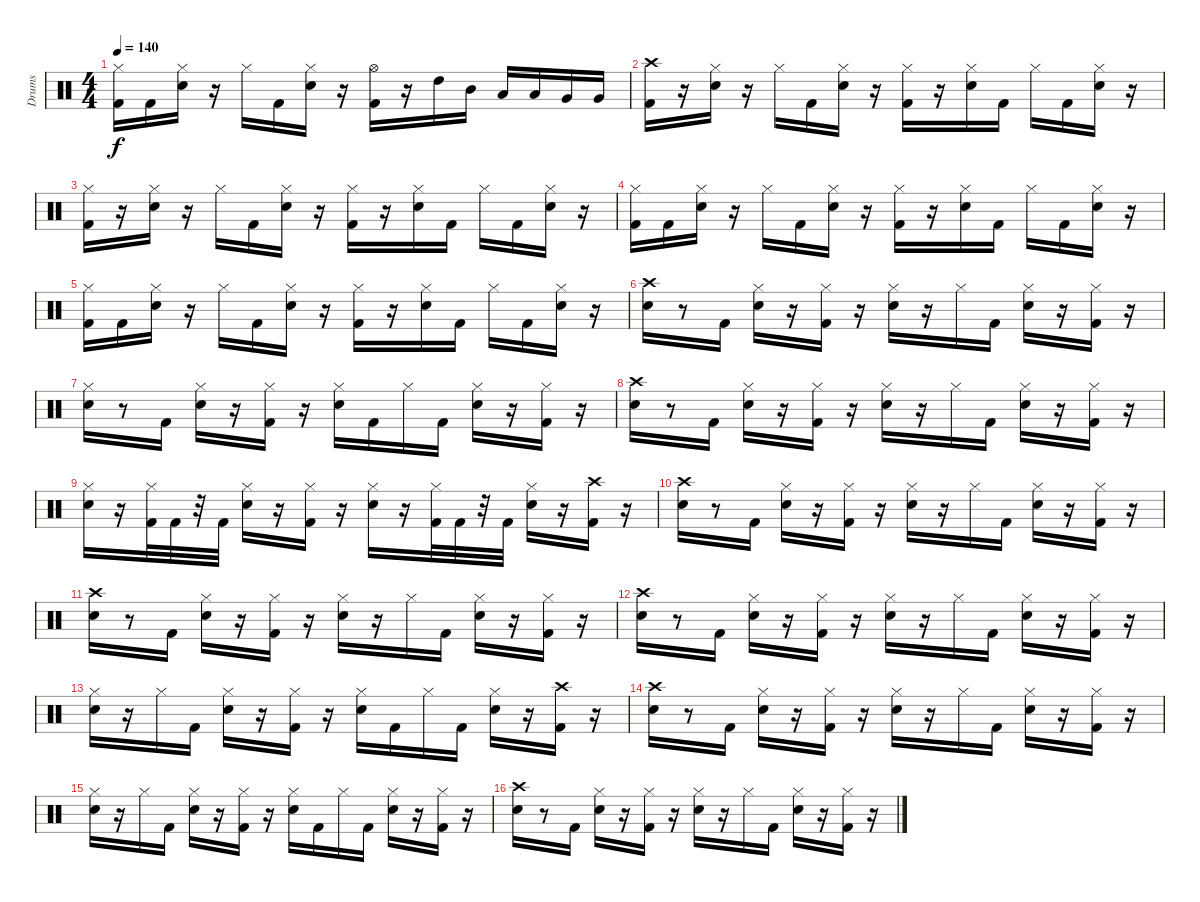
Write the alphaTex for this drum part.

\track ("Drums" "Drums") {instrument percussion}
\staff {score}
\articulation defaults
\ts (4 4)
\tempo 140
\clef neutral
\ks c
("Kick (hit) 2" "Hi-Hat (closed)").16{dy f} "Kick (hit) 2".16 ("Snare (hit) 2" "Hi-Hat (closed)").16 r.16 "Hi-Hat (closed)".16 "Kick (hit) 2".16 ("Snare (hit) 2" "Hi-Hat (closed)").16 r.16 ("Kick (hit) 2" "Hi-Hat (open)").16 r.16 "High Tom (hit)".16 "Mid Tom (hit)".16 "Low Tom (hit)".16 "Low Tom (hit)".16 "Very Low Tom (hit)".16 "Very Low Tom (hit)".16 |
("Kick (hit) 2" "Crash high (hit)").16 r.16 ("Snare (hit) 2" "Hi-Hat (closed)").16 r.16 "Hi-Hat (closed)".16 "Kick (hit) 2".16 ("Snare (hit) 2" "Hi-Hat (closed)").16 r.16 ("Kick (hit) 2" "Hi-Hat (closed)").16 r.16 ("Snare (hit) 2" "Hi-Hat (closed)").16 "Kick (hit) 2".16 "Hi-Hat (closed)".16 "Kick (hit) 2".16 ("Snare (hit) 2" "Hi-Hat (closed)").16 r.16 |
("Kick (hit) 2" "Hi-Hat (closed)").16 r.16 ("Snare (hit) 2" "Hi-Hat (closed)").16 r.16 "Hi-Hat (closed)".16 "Kick (hit) 2".16 ("Snare (hit) 2" "Hi-Hat (closed)").16 r.16 ("Kick (hit) 2" "Hi-Hat (closed)").16 r.16 ("Snare (hit) 2" "Hi-Hat (closed)").16 "Kick (hit) 2".16 "Hi-Hat (closed)".16 "Kick (hit) 2".16 ("Snare (hit) 2" "Hi-Hat (closed)").16 r.16 |
("Kick (hit) 2" "Hi-Hat (closed)").16 "Kick (hit) 2".16 ("Snare (hit) 2" "Hi-Hat (closed)").16 r.16 "Hi-Hat (closed)".16 "Kick (hit) 2".16 ("Snare (hit) 2" "Hi-Hat (closed)").16 r.16 ("Kick (hit) 2" "Hi-Hat (closed)").16 r.16 ("Snare (hit) 2" "Hi-Hat (closed)").16 "Kick (hit) 2".16 "Hi-Hat (closed)".16 "Kick (hit) 2".16 ("Snare (hit) 2" "Hi-Hat (closed)").16 r.16 |
("Kick (hit) 2" "Hi-Hat (closed)").16 "Kick (hit) 2".16 ("Snare (hit) 2" "Hi-Hat (closed)").16 r.16 "Hi-Hat (closed)".16 "Kick (hit) 2".16 ("Snare (hit) 2" "Hi-Hat (closed)").16 r.16 ("Kick (hit) 2" "Hi-Hat (closed)").16 r.16 ("Snare (hit) 2" "Hi-Hat (closed)").16 "Kick (hit) 2".16 "Hi-Hat (closed)".16 "Kick (hit) 2".16 ("Snare (hit) 2" "Hi-Hat (closed)").16 r.16 |
("Snare (hit) 2" "Crash high (hit)").16 r.8 "Kick (hit) 2".16 ("Snare (hit) 2" "Hi-Hat (closed)").16 r.16 ("Kick (hit) 2" "Hi-Hat (closed)").16 r.16 ("Snare (hit) 2" "Hi-Hat (closed)").16 r.16 "Hi-Hat (closed)".16 "Kick (hit) 2".16 ("Snare (hit) 2" "Hi-Hat (closed)").16 r.16 ("Kick (hit) 2" "Hi-Hat (closed)").16 r.16 |
("Snare (hit) 2" "Hi-Hat (closed)").16 r.8 "Kick (hit) 2".16 ("Snare (hit) 2" "Hi-Hat (closed)").16 r.16 ("Kick (hit) 2" "Hi-Hat (closed)").16 r.16 ("Snare (hit) 2" "Hi-Hat (closed)").16 "Kick (hit) 2".16 "Hi-Hat (closed)".16 "Kick (hit) 2".16 ("Snare (hit) 2" "Hi-Hat (closed)").16 r.16 ("Kick (hit) 2" "Hi-Hat (closed)").16 r.16 |
("Snare (hit) 2" "Crash high (hit)").16 r.8 "Kick (hit) 2".16 ("Snare (hit) 2" "Hi-Hat (closed)").16 r.16 ("Kick (hit) 2" "Hi-Hat (closed)").16 r.16 ("Snare (hit) 2" "Hi-Hat (closed)").16 r.16 "Hi-Hat (closed)".16 "Kick (hit) 2".16 ("Snare (hit) 2" "Hi-Hat (closed)").16 r.16 ("Kick (hit) 2" "Hi-Hat (closed)").16 r.16 |
("Snare (hit) 2" "Hi-Hat (closed)").16 r.16 ("Kick (hit) 2" "Hi-Hat (closed)").32 "Kick (hit) 2".32 r.32 "Kick (hit) 2".32 ("Snare (hit) 2" "Hi-Hat (closed)").16 r.16 ("Kick (hit) 2" "Hi-Hat (closed)").16 r.16 ("Snare (hit) 2" "Hi-Hat (closed)").16 r.16 ("Kick (hit) 2" "Hi-Hat (closed)").32 "Kick (hit) 2".32 r.32 "Kick (hit) 2".32 ("Snare (hit) 2" "Hi-Hat (closed)").16 r.16 ("Kick (hit) 2" "Crash high (hit)").16 r.16 |
("Snare (hit) 2" "Crash high (hit)").16 r.8 "Kick (hit) 2".16 ("Snare (hit) 2" "Hi-Hat (closed)").16 r.16 ("Kick (hit) 2" "Hi-Hat (closed)").16 r.16 ("Snare (hit) 2" "Hi-Hat (closed)").16 r.16 "Hi-Hat (closed)".16 "Kick (hit) 2".16 ("Snare (hit) 2" "Hi-Hat (closed)").16 r.16 ("Kick (hit) 2" "Hi-Hat (closed)").16 r.16 |
("Snare (hit) 2" "Crash high (hit)").16 r.8 "Kick (hit) 2".16 ("Snare (hit) 2" "Hi-Hat (closed)").16 r.16 ("Kick (hit) 2" "Hi-Hat (closed)").16 r.16 ("Snare (hit) 2" "Hi-Hat (closed)").16 r.16 "Hi-Hat (closed)".16 "Kick (hit) 2".16 ("Snare (hit) 2" "Hi-Hat (closed)").16 r.16 ("Kick (hit) 2" "Hi-Hat (closed)").16 r.16 |
("Snare (hit) 2" "Crash high (hit)").16 r.8 "Kick (hit) 2".16 ("Snare (hit) 2" "Hi-Hat (closed)").16 r.16 ("Kick (hit) 2" "Hi-Hat (closed)").16 r.16 ("Snare (hit) 2" "Hi-Hat (closed)").16 r.16 "Hi-Hat (closed)".16 "Kick (hit) 2".16 ("Snare (hit) 2" "Hi-Hat (closed)").16 r.16 ("Kick (hit) 2" "Hi-Hat (closed)").16 r.16 |
("Snare (hit) 2" "Hi-Hat (closed)").16 r.16 "Hi-Hat (closed)".16 "Kick (hit) 2".16 ("Snare (hit) 2" "Hi-Hat (closed)").16 r.16 ("Kick (hit) 2" "Hi-Hat (closed)").16 r.16 ("Snare (hit) 2" "Hi-Hat (closed)").16 "Kick (hit) 2".16 "Hi-Hat (closed)".16 "Kick (hit) 2".16 ("Snare (hit) 2" "Hi-Hat (closed)").16 r.16 ("Kick (hit) 2" "Crash high (hit)").16 r.16 |
("Snare (hit) 2" "Crash high (hit)").16 r.8 "Kick (hit) 2".16 ("Snare (hit) 2" "Hi-Hat (closed)").16 r.16 ("Kick (hit) 2" "Hi-Hat (closed)").16 r.16 ("Snare (hit) 2" "Hi-Hat (closed)").16 r.16 "Hi-Hat (closed)".16 "Kick (hit) 2".16 ("Snare (hit) 2" "Hi-Hat (closed)").16 r.16 ("Kick (hit) 2" "Hi-Hat (closed)").16 r.16 |
("Snare (hit) 2" "Hi-Hat (closed)").16 r.16 "Hi-Hat (closed)".16 "Kick (hit) 2".16 ("Snare (hit) 2" "Hi-Hat (closed)").16 r.16 ("Kick (hit) 2" "Hi-Hat (closed)").16 r.16 ("Snare (hit) 2" "Hi-Hat (closed)").16 "Kick (hit) 2".16 "Hi-Hat (closed)".16 "Kick (hit) 2".16 ("Snare (hit) 2" "Hi-Hat (closed)").16 r.16 ("Kick (hit) 2" "Hi-Hat (closed)").16 r.16 |
("Snare (hit) 2" "Crash high (hit)").16 r.8 "Kick (hit) 2".16 ("Snare (hit) 2" "Hi-Hat (closed)").16 r.16 ("Kick (hit) 2" "Hi-Hat (closed)").16 r.16 ("Snare (hit) 2" "Hi-Hat (closed)").16 r.16 "Hi-Hat (closed)".16 "Kick (hit) 2".16 ("Snare (hit) 2" "Hi-Hat (closed)").16 r.16 ("Kick (hit) 2" "Hi-Hat (closed)").16 r.16
